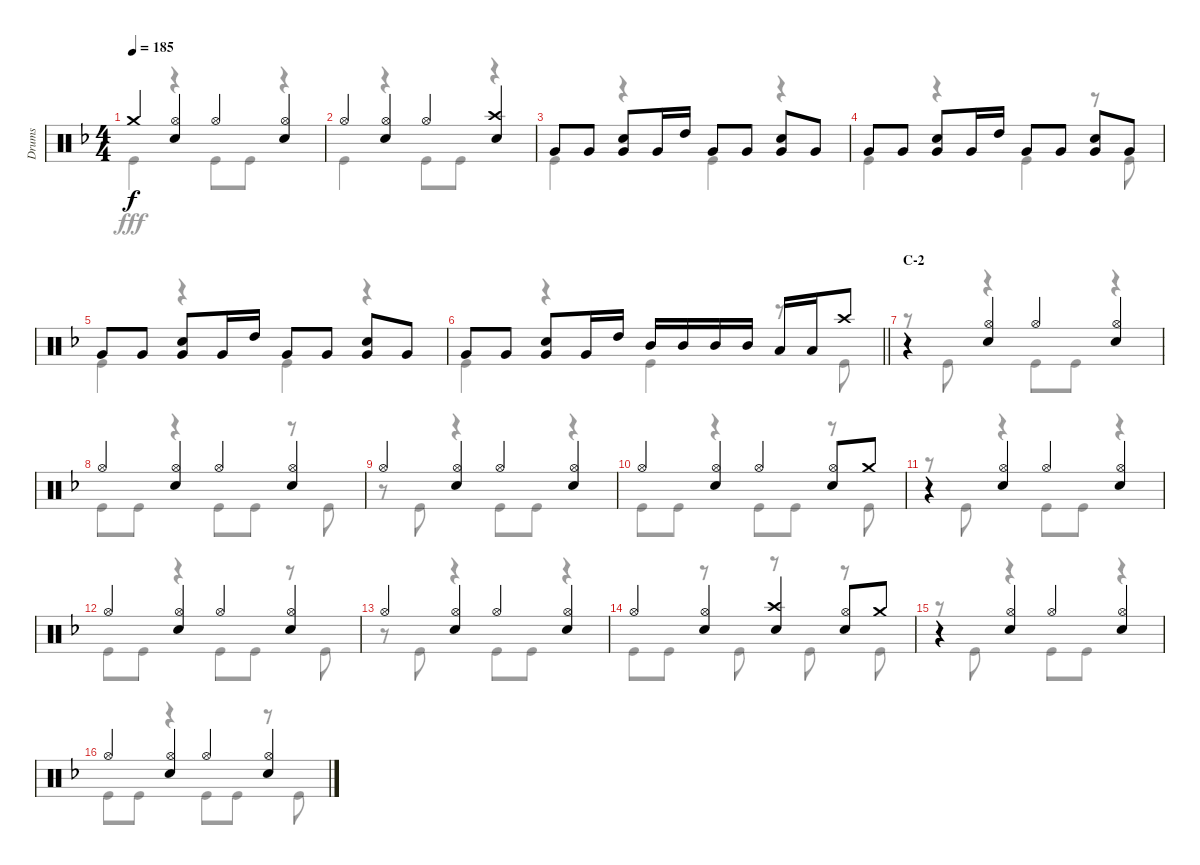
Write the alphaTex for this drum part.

\track ("Drums" "Drums") {instrument percussion}
\staff {score}
\articulation defaults
\voice
\ts (4 4)
\tempo 185
\clef neutral
\ks f "Crash medium (hit)".4{dy f}
("Hi-Hat (open)" "Snare (hit) 2").4 "Hi-Hat (open)".4 ("Hi-Hat (open)" "Snare (hit) 2").4 |
"Hi-Hat (open)".4 ("Hi-Hat (open)" "Snare (hit) 2").4 "Hi-Hat (open)".4 ("Crash high (hit)" "Snare (hit) 2").4 |
"Very Low Tom (hit)".8 "Very Low Tom (hit)".8 ("Snare (hit) 2" "Very Low Tom (hit)").8 "Very Low Tom (hit)".16 "High Tom (hit)".16 "Very Low Tom (hit)".8 "Very Low Tom (hit)".8 ("Snare (hit) 2" "Very Low Tom (hit)").8 "Very Low Tom (hit)".8 |
"Very Low Tom (hit)".8 "Very Low Tom (hit)".8 ("Snare (hit) 2" "Very Low Tom (hit)").8 "Very Low Tom (hit)".16 "High Tom (hit)".16 "Very Low Tom (hit)".8 "Very Low Tom (hit)".8 ("Snare (hit) 2" "Very Low Tom (hit)").8 "Very Low Tom (hit)".8 |
"Very Low Tom (hit)".8 "Very Low Tom (hit)".8 ("Snare (hit) 2" "Very Low Tom (hit)").8 "Very Low Tom (hit)".16 "High Tom (hit)".16 "Very Low Tom (hit)".8 "Very Low Tom (hit)".8 ("Snare (hit) 2" "Very Low Tom (hit)").8 "Very Low Tom (hit)".8 |
\barLineRight lightlight "Very Low Tom (hit)".8 "Very Low Tom (hit)".8
("Snare (hit) 2" "Very Low Tom (hit)").8 "Very Low Tom (hit)".16 "High Tom (hit)".16 "Mid Tom (hit)".16 "Mid Tom (hit)".16 "Mid Tom (hit)".16 "Mid Tom (hit)".16 "Low Tom (hit)".16 "Low Tom (hit)".16 "Crash high (hit)".8 |
\section ("" "C-2")
r.4 ("Hi-Hat (open)" "Snare (hit) 2").4 "Hi-Hat (open)".4 ("Hi-Hat (open)" "Snare (hit) 2").4 |
"Hi-Hat (open)".4 ("Hi-Hat (open)" "Snare (hit) 2").4 "Hi-Hat (open)".4 ("Hi-Hat (open)" "Snare (hit) 2").4 |
"Hi-Hat (open)".4 ("Hi-Hat (open)" "Snare (hit) 2").4 "Hi-Hat (open)".4 ("Hi-Hat (open)" "Snare (hit) 2").4 |
"Hi-Hat (open)".4 ("Hi-Hat (open)" "Snare (hit) 2").4 "Hi-Hat (open)".4 ("Hi-Hat (open)" "Snare (hit) 2").8 "Crash medium (hit)".8 |
r.4 ("Hi-Hat (open)" "Snare (hit) 2").4 "Hi-Hat (open)".4 ("Hi-Hat (open)" "Snare (hit) 2").4 |
"Hi-Hat (open)".4 ("Hi-Hat (open)" "Snare (hit) 2").4 "Hi-Hat (open)".4 ("Hi-Hat (open)" "Snare (hit) 2").4 |
"Hi-Hat (open)".4 ("Hi-Hat (open)" "Snare (hit) 2").4 "Hi-Hat (open)".4 ("Hi-Hat (open)" "Snare (hit) 2").4 |
"Hi-Hat (open)".4 ("Hi-Hat (open)" "Snare (hit) 2").4 ("Crash high (hit)" "Snare (hit) 2").4 ("Hi-Hat (open)" "Snare (hit) 2").8 "Crash medium (hit)".8 |
r.4 ("Hi-Hat (open)" "Snare (hit) 2").4 "Hi-Hat (open)".4 ("Hi-Hat (open)" "Snare (hit) 2").4 |
"Hi-Hat (open)".4 ("Hi-Hat (open)" "Snare (hit) 2").4 "Hi-Hat (open)".4 ("Hi-Hat (open)" "Snare (hit) 2").4
\voice
\clef neutral
\ottava regular
\simile none
\ks f "Kick (hit)".4{dy fff}
r.4 "Kick (hit)".8 "Kick (hit)".8 r.4 |
"Kick (hit)".4 r.4 "Kick (hit)".8 "Kick (hit)".8 r.4 |
"Kick (hit)".4 r.4 "Kick (hit)".4 r.4 |
"Kick (hit)".4 r.4 "Kick (hit)".4 r.8 "Kick (hit)".8 |
"Kick (hit)".4 r.4 "Kick (hit)".4 r.4 |
\barLineRight lightlight "Kick (hit)".4
r.4 "Kick (hit)".4 r.8 "Kick (hit)".8 |
r.8 "Kick (hit)".8 r.4 "Kick (hit)".8 "Kick (hit)".8 r.4 |
"Kick (hit)".8 "Kick (hit)".8 r.4 "Kick (hit)".8 "Kick (hit)".8 r.8 "Kick (hit)".8 |
r.8 "Kick (hit)".8 r.4 "Kick (hit)".8 "Kick (hit)".8 r.4 |
"Kick (hit)".8 "Kick (hit)".8 r.4 "Kick (hit)".8 "Kick (hit)".8 r.8 "Kick (hit)".8 |
r.8 "Kick (hit)".8 r.4 "Kick (hit)".8 "Kick (hit)".8 r.4 |
"Kick (hit)".8 "Kick (hit)".8 r.4 "Kick (hit)".8 "Kick (hit)".8 r.8 "Kick (hit)".8 |
r.8 "Kick (hit)".8 r.4 "Kick (hit)".8 "Kick (hit)".8 r.4 |
"Kick (hit)".8 "Kick (hit)".8 r.8 "Kick (hit)".8 r.8 "Kick (hit)".8 r.8 "Kick (hit)".8 |
r.8 "Kick (hit)".8 r.4 "Kick (hit)".8 "Kick (hit)".8 r.4 |
"Kick (hit)".8 "Kick (hit)".8 r.4 "Kick (hit)".8 "Kick (hit)".8 r.8 "Kick (hit)".8
